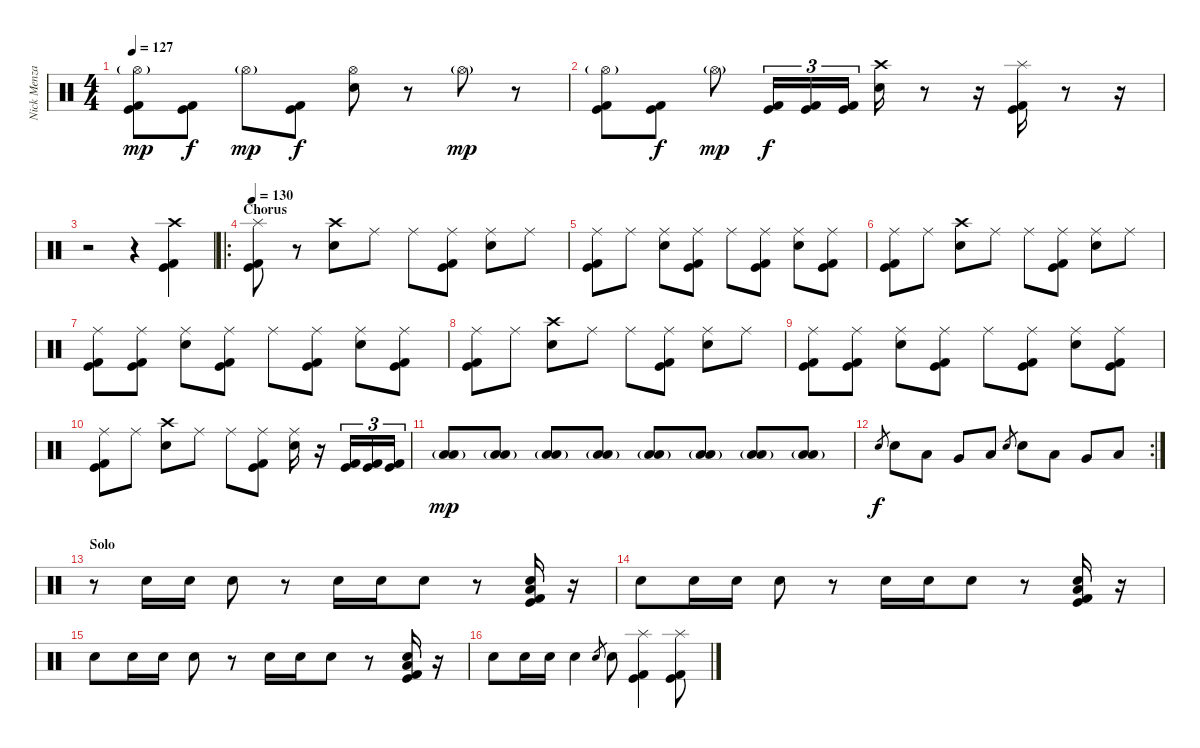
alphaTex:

\track ("Nick Menza (Drums)" "Nick Menza") {instrument percussion}
\staff {score}
\articulation defaults
\ts (4 4)
\tempo 127
\clef neutral
\ks c
("Hi-Hat (open)"{g} "Kick (hit)" "Kick (hit) 2").8{dy mp} ("Kick (hit)" "Kick (hit) 2").8{dy f} "Hi-Hat (open)"{g}.8{dy mp} ("Kick (hit)" "Kick (hit) 2").8{dy f} ("Hi-Hat (open)" "Electric Snare (hit)").8 r.8 "Hi-Hat (open)"{g}.8{dy mp} r.8 |
("Hi-Hat (open)"{g} "Kick (hit)" "Kick (hit) 2").8 ("Kick (hit)" "Kick (hit) 2").8{dy f} "Hi-Hat (open)"{g}.8{dy mp} ("Kick (hit)" "Kick (hit) 2").16{tu (3 2) dy f} ("Kick (hit)" "Kick (hit) 2").16{tu (3 2)} ("Kick (hit)" "Kick (hit) 2").16{tu (3 2)} ("Crash high (hit)" "Electric Snare (hit)").16 r.8 r.16 ("Splash (hit)" "Kick (hit)" "Kick (hit) 2").16 r.8 r.16 |
r.2 r.4 ("Crash high (hit)" "Kick (hit)" "Kick (hit) 2").4 |
\ro
\section ("" "Chorus")
\tempo 130
("Splash (hit)" "Kick (hit)" "Kick (hit) 2").8 r.8 ("Crash high (hit)" "Electric Snare (hit)").8 "Ride (middle)".8 "Ride (middle)".8 ("Ride (middle)" "Kick (hit)" "Kick (hit) 2").8 ("Ride (middle)" "Electric Snare (hit)").8 "Ride (middle)".8 |
("Ride (middle)" "Kick (hit)" "Kick (hit) 2").8 "Ride (middle)".8 ("Ride (middle)" "Electric Snare (hit)").8 ("Ride (middle)" "Kick (hit)" "Kick (hit) 2").8 "Ride (middle)".8 ("Ride (middle)" "Kick (hit)" "Kick (hit) 2").8 ("Ride (middle)" "Electric Snare (hit)").8 ("Ride (middle)" "Kick (hit)" "Kick (hit) 2").8 |
("Ride (middle)" "Kick (hit)" "Kick (hit) 2").8 "Ride (middle)".8 ("Crash high (hit)" "Electric Snare (hit)").8 "Ride (middle)".8 "Ride (middle)".8 ("Ride (middle)" "Kick (hit)" "Kick (hit) 2").8 ("Ride (middle)" "Electric Snare (hit)").8 "Ride (middle)".8 |
("Ride (middle)" "Kick (hit)" "Kick (hit) 2").8 ("Ride (middle)" "Kick (hit)" "Kick (hit) 2").8 ("Ride (middle)" "Electric Snare (hit)").8 ("Ride (middle)" "Kick (hit)" "Kick (hit) 2").8 "Ride (middle)".8 ("Ride (middle)" "Kick (hit)" "Kick (hit) 2").8 ("Ride (middle)" "Electric Snare (hit)").8 ("Ride (middle)" "Kick (hit)" "Kick (hit) 2").8 |
("Ride (middle)" "Kick (hit)" "Kick (hit) 2").8 "Ride (middle)".8 ("Crash high (hit)" "Electric Snare (hit)").8 "Ride (middle)".8 "Ride (middle)".8 ("Ride (middle)" "Kick (hit)" "Kick (hit) 2").8 ("Ride (middle)" "Electric Snare (hit)").8 "Ride (middle)".8 |
("Ride (middle)" "Kick (hit)" "Kick (hit) 2").8 ("Ride (middle)" "Kick (hit)" "Kick (hit) 2").8 ("Ride (middle)" "Electric Snare (hit)").8 ("Ride (middle)" "Kick (hit)" "Kick (hit) 2").8 "Ride (middle)".8 ("Ride (middle)" "Kick (hit)" "Kick (hit) 2").8 ("Ride (middle)" "Electric Snare (hit)").8 ("Ride (middle)" "Kick (hit)" "Kick (hit) 2").8 |
("Ride (middle)" "Kick (hit)" "Kick (hit) 2").8 "Ride (middle)".8 ("Crash high (hit)" "Electric Snare (hit)").8 "Ride (middle)".8 "Ride (middle)".8 ("Ride (middle)" "Kick (hit)" "Kick (hit) 2").8 ("Ride (middle)" "Electric Snare (hit)").16 r.16 ("Kick (hit)" "Kick (hit) 2").16{tu (3 2)} ("Kick (hit)" "Kick (hit) 2").16{tu (3 2)} ("Kick (hit)" "Kick (hit) 2").16{tu (3 2)} |
("Low Tom (hit)"{g} "Low Floor Tom (hit)").8{dy mp} ("Low Tom (hit)"{g} "Low Floor Tom (hit)").8 ("Low Tom (hit)"{g} "Low Floor Tom (hit)").8 ("Low Tom (hit)"{g} "Low Floor Tom (hit)").8 ("Low Tom (hit)"{g} "Low Floor Tom (hit)").8 ("Low Tom (hit)"{g} "Low Floor Tom (hit)").8 ("Low Tom (hit)"{g} "Low Floor Tom (hit)").8 ("Low Tom (hit)"{g} "Low Floor Tom (hit)").8 |
\rc 2 "Electric Snare (hit)".8{gr dy f} "Electric Snare (hit)".8 "Low Tom (hit)".8 "Very Low Tom (hit)".8 "Low Floor Tom (hit)".8 "Electric Snare (hit)".8{gr} "Electric Snare (hit)".8 "Low Tom (hit)".8 "Very Low Tom (hit)".8 "Low Floor Tom (hit)".8
|
\section ("" "Solo")
r.8 "Electric Snare (hit)".16 "Electric Snare (hit)".16 "Electric Snare (hit)".8 r.8 "Electric Snare (hit)".16 "Electric Snare (hit)".16 "Electric Snare (hit)".8 r.8 ("Electric Snare (hit)" "Low Floor Tom (hit)" "Kick (hit)" "Kick (hit) 2").16 r.16 |
"Electric Snare (hit)".8 "Electric Snare (hit)".16 "Electric Snare (hit)".16 "Electric Snare (hit)".8 r.8 "Electric Snare (hit)".16 "Electric Snare (hit)".16 "Electric Snare (hit)".8 r.8 ("Electric Snare (hit)" "Low Floor Tom (hit)" "Kick (hit)" "Kick (hit) 2").16 r.16 |
"Electric Snare (hit)".8 "Electric Snare (hit)".16 "Electric Snare (hit)".16 "Electric Snare (hit)".8 r.8 "Electric Snare (hit)".16 "Electric Snare (hit)".16 "Electric Snare (hit)".8 r.8 ("Electric Snare (hit)" "Low Floor Tom (hit)" "Kick (hit)" "Kick (hit) 2").16 r.16 |
"Electric Snare (hit)".8 "Electric Snare (hit)".16 "Electric Snare (hit)".16 "Electric Snare (hit)".4 "Electric Snare (hit)".8{gr} "Electric Snare (hit)".8 ("Splash (hit)" "Kick (hit)" "Kick (hit) 2").4 ("Splash (hit)" "Kick (hit)" "Kick (hit) 2").8
